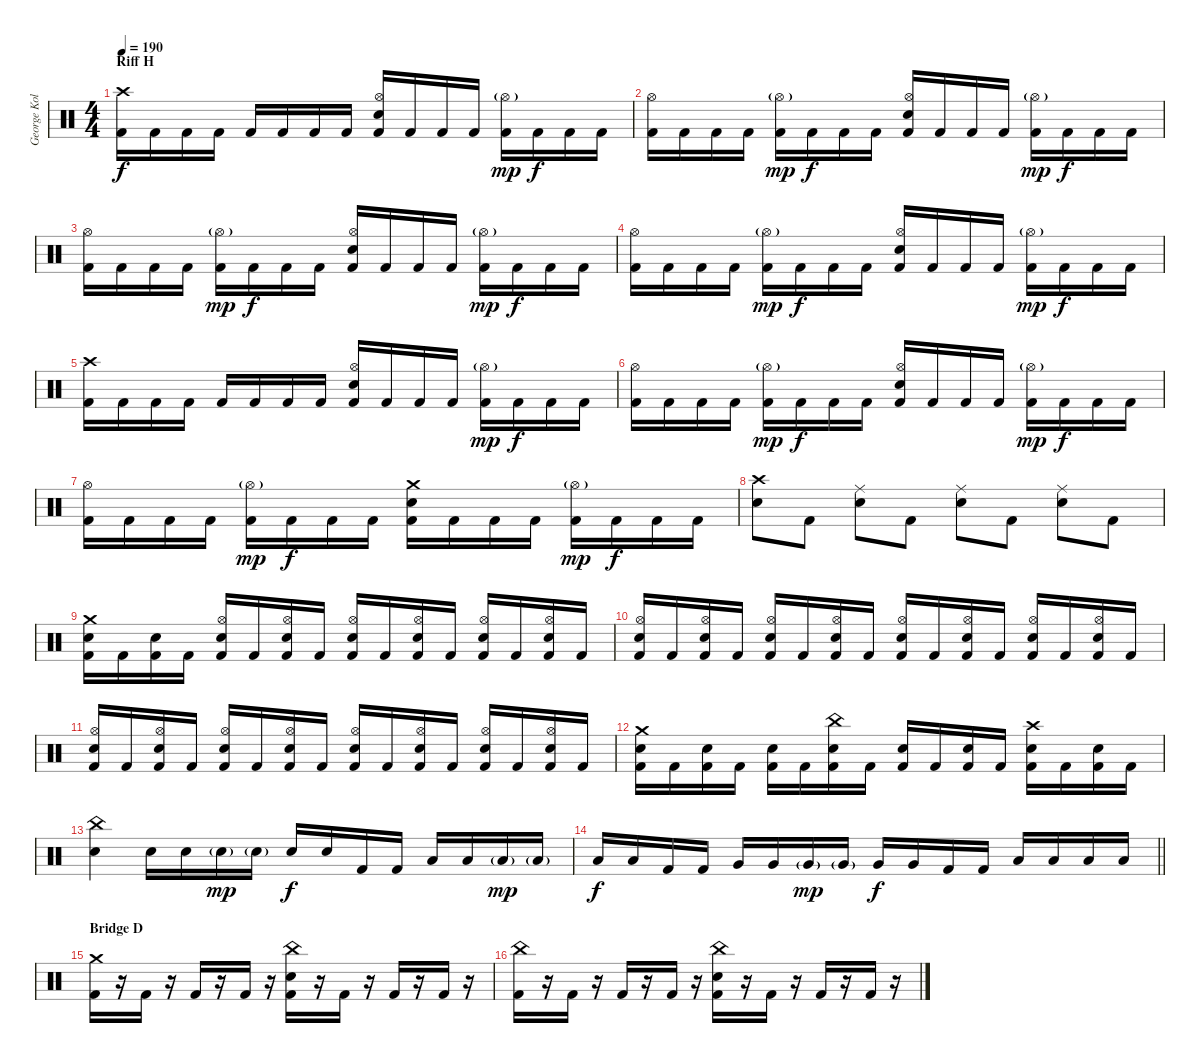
\track ("George Kollias" "George Kol") {instrument percussion}
\staff {score}
\articulation defaults
\ts (4 4)
\section ("" "Riff H")
\tempo 190
\clef neutral
\ks c
("Crash high (hit)" "Kick (hit) 2").16{dy f} "Kick (hit) 2".16 "Kick (hit) 2".16 "Kick (hit) 2".16 "Kick (hit) 2".16 "Kick (hit) 2".16 "Kick (hit) 2".16 "Kick (hit) 2".16 ("Hi-Hat (open)" "Electric Snare (hit)" "Kick (hit) 2").16 "Kick (hit) 2".16 "Kick (hit) 2".16 "Kick (hit) 2".16 ("Hi-Hat (open)"{g} "Kick (hit) 2").16{dy mp} "Kick (hit) 2".16{dy f} "Kick (hit) 2".16 "Kick (hit) 2".16 |
("Hi-Hat (open)" "Kick (hit) 2").16 "Kick (hit) 2".16 "Kick (hit) 2".16 "Kick (hit) 2".16 ("Hi-Hat (open)"{g} "Kick (hit) 2").16{dy mp} "Kick (hit) 2".16{dy f} "Kick (hit) 2".16 "Kick (hit) 2".16 ("Hi-Hat (open)" "Electric Snare (hit)" "Kick (hit) 2").16 "Kick (hit) 2".16 "Kick (hit) 2".16 "Kick (hit) 2".16 ("Hi-Hat (open)"{g} "Kick (hit) 2").16{dy mp} "Kick (hit) 2".16{dy f} "Kick (hit) 2".16 "Kick (hit) 2".16 |
("Hi-Hat (open)" "Kick (hit) 2").16 "Kick (hit) 2".16 "Kick (hit) 2".16 "Kick (hit) 2".16 ("Hi-Hat (open)"{g} "Kick (hit) 2").16{dy mp} "Kick (hit) 2".16{dy f} "Kick (hit) 2".16 "Kick (hit) 2".16 ("Hi-Hat (open)" "Electric Snare (hit)" "Kick (hit) 2").16 "Kick (hit) 2".16 "Kick (hit) 2".16 "Kick (hit) 2".16 ("Hi-Hat (open)"{g} "Kick (hit) 2").16{dy mp} "Kick (hit) 2".16{dy f} "Kick (hit) 2".16 "Kick (hit) 2".16 |
("Hi-Hat (open)" "Kick (hit) 2").16 "Kick (hit) 2".16 "Kick (hit) 2".16 "Kick (hit) 2".16 ("Hi-Hat (open)"{g} "Kick (hit) 2").16{dy mp} "Kick (hit) 2".16{dy f} "Kick (hit) 2".16 "Kick (hit) 2".16 ("Hi-Hat (open)" "Electric Snare (hit)" "Kick (hit) 2").16 "Kick (hit) 2".16 "Kick (hit) 2".16 "Kick (hit) 2".16 ("Hi-Hat (open)"{g} "Kick (hit) 2").16{dy mp} "Kick (hit) 2".16{dy f} "Kick (hit) 2".16 "Kick (hit) 2".16 |
("Crash high (hit)" "Kick (hit) 2").16 "Kick (hit) 2".16 "Kick (hit) 2".16 "Kick (hit) 2".16 "Kick (hit) 2".16 "Kick (hit) 2".16 "Kick (hit) 2".16 "Kick (hit) 2".16 ("Hi-Hat (open)" "Electric Snare (hit)" "Kick (hit) 2").16 "Kick (hit) 2".16 "Kick (hit) 2".16 "Kick (hit) 2".16 ("Hi-Hat (open)"{g} "Kick (hit) 2").16{dy mp} "Kick (hit) 2".16{dy f} "Kick (hit) 2".16 "Kick (hit) 2".16 |
("Hi-Hat (open)" "Kick (hit) 2").16 "Kick (hit) 2".16 "Kick (hit) 2".16 "Kick (hit) 2".16 ("Hi-Hat (open)"{g} "Kick (hit) 2").16{dy mp} "Kick (hit) 2".16{dy f} "Kick (hit) 2".16 "Kick (hit) 2".16 ("Hi-Hat (open)" "Electric Snare (hit)" "Kick (hit) 2").16 "Kick (hit) 2".16 "Kick (hit) 2".16 "Kick (hit) 2".16 ("Hi-Hat (open)"{g} "Kick (hit) 2").16{dy mp} "Kick (hit) 2".16{dy f} "Kick (hit) 2".16 "Kick (hit) 2".16 |
("Hi-Hat (open)" "Kick (hit) 2").16 "Kick (hit) 2".16 "Kick (hit) 2".16 "Kick (hit) 2".16 ("Hi-Hat (open)"{g} "Kick (hit) 2").16{dy mp} "Kick (hit) 2".16{dy f} "Kick (hit) 2".16 "Kick (hit) 2".16 ("Crash medium (hit)" "Electric Snare (hit)" "Kick (hit) 2").16 "Kick (hit) 2".16 "Kick (hit) 2".16 "Kick (hit) 2".16 ("Hi-Hat (open)"{g} "Kick (hit) 2").16{dy mp} "Kick (hit) 2".16{dy f} "Kick (hit) 2".16 "Kick (hit) 2".16 |
("Crash high (hit)" "Electric Snare (hit)").8 "Kick (hit) 2".8 ("Ride (middle)" "Electric Snare (hit)").8 "Kick (hit) 2".8 ("Ride (middle)" "Electric Snare (hit)").8 "Kick (hit) 2".8 ("Ride (middle)" "Electric Snare (hit)").8 "Kick (hit) 2".8 |
("Crash medium (hit)" "Electric Snare (hit)" "Kick (hit) 2").16 "Kick (hit) 2".16 ("Electric Snare (hit)" "Kick (hit) 2").16 "Kick (hit) 2".16 ("Hi-Hat (open)" "Electric Snare (hit)" "Kick (hit) 2").16 "Kick (hit) 2".16 ("Hi-Hat (open)" "Electric Snare (hit)" "Kick (hit) 2").16 "Kick (hit) 2".16 ("Hi-Hat (open)" "Electric Snare (hit)" "Kick (hit) 2").16 "Kick (hit) 2".16 ("Hi-Hat (open)" "Electric Snare (hit)" "Kick (hit) 2").16 "Kick (hit) 2".16 ("Hi-Hat (open)" "Electric Snare (hit)" "Kick (hit) 2").16 "Kick (hit) 2".16 ("Hi-Hat (open)" "Electric Snare (hit)" "Kick (hit) 2").16 "Kick (hit) 2".16 |
("Hi-Hat (open)" "Electric Snare (hit)" "Kick (hit) 2").16 "Kick (hit) 2".16 ("Hi-Hat (open)" "Electric Snare (hit)" "Kick (hit) 2").16 "Kick (hit) 2".16 ("Hi-Hat (open)" "Electric Snare (hit)" "Kick (hit) 2").16 "Kick (hit) 2".16 ("Hi-Hat (open)" "Electric Snare (hit)" "Kick (hit) 2").16 "Kick (hit) 2".16 ("Hi-Hat (open)" "Electric Snare (hit)" "Kick (hit) 2").16 "Kick (hit) 2".16 ("Hi-Hat (open)" "Electric Snare (hit)" "Kick (hit) 2").16 "Kick (hit) 2".16 ("Hi-Hat (open)" "Electric Snare (hit)" "Kick (hit) 2").16 "Kick (hit) 2".16 ("Hi-Hat (open)" "Electric Snare (hit)" "Kick (hit) 2").16 "Kick (hit) 2".16 |
("Hi-Hat (open)" "Electric Snare (hit)" "Kick (hit) 2").16 "Kick (hit) 2".16 ("Hi-Hat (open)" "Electric Snare (hit)" "Kick (hit) 2").16 "Kick (hit) 2".16 ("Hi-Hat (open)" "Electric Snare (hit)" "Kick (hit) 2").16 "Kick (hit) 2".16 ("Hi-Hat (open)" "Electric Snare (hit)" "Kick (hit) 2").16 "Kick (hit) 2".16 ("Hi-Hat (open)" "Electric Snare (hit)" "Kick (hit) 2").16 "Kick (hit) 2".16 ("Hi-Hat (open)" "Electric Snare (hit)" "Kick (hit) 2").16 "Kick (hit) 2".16 ("Hi-Hat (open)" "Electric Snare (hit)" "Kick (hit) 2").16 "Kick (hit) 2".16 ("Hi-Hat (open)" "Electric Snare (hit)" "Kick (hit) 2").16 "Kick (hit) 2".16 |
("Crash medium (hit)" "Electric Snare (hit)" "Kick (hit) 2").16 "Kick (hit) 2".16 ("Electric Snare (hit)" "Kick (hit) 2").16 "Kick (hit) 2".16 ("Electric Snare (hit)" "Kick (hit) 2").16 "Kick (hit) 2".16 ("China (hit)" "Electric Snare (hit)" "Kick (hit) 2").16 "Kick (hit) 2".16 ("Electric Snare (hit)" "Kick (hit) 2").16 "Kick (hit) 2".16 ("Electric Snare (hit)" "Kick (hit) 2").16 "Kick (hit) 2".16 ("Crash high (hit)" "Electric Snare (hit)" "Kick (hit) 2").16 "Kick (hit) 2".16 ("Electric Snare (hit)" "Kick (hit) 2").16 "Kick (hit) 2".16 |
("China (hit)" "Electric Snare (hit)").4 "Electric Snare (hit)".16 "Electric Snare (hit)".16 "Electric Snare (hit)"{g}.16{dy mp} "Electric Snare (hit)"{g}.16 "Electric Snare (hit)".16{dy f} "Electric Snare (hit)".16 "Kick (hit) 2".16 "Kick (hit) 2".16 "Low Tom (hit)".16 "Low Tom (hit)".16 "Low Tom (hit)"{g}.16{dy mp} "Low Tom (hit)"{g}.16 |
\barLineRight lightlight "Low Tom (hit)".16{dy f} "Low Tom (hit)".16 "Kick (hit) 2".16 "Kick (hit) 2".16 "Very Low Tom (hit)".16 "Very Low Tom (hit)".16 "Very Low Tom (hit)"{g}.16{dy mp} "Very Low Tom (hit)"{g}.16 "Very Low Tom (hit)".16{dy f} "Very Low Tom (hit)".16 "Kick (hit) 2".16 "Kick (hit) 2".16 "Low Floor Tom (hit)".16 "Low Floor Tom (hit)".16 "Low Floor Tom (hit)".16 "Low Floor Tom (hit)".16
|
\section ("" "Bridge D")
("Crash medium (hit)" "Kick (hit) 2").16 r.16 "Kick (hit) 2".16 r.16 "Kick (hit) 2".16 r.16 "Kick (hit) 2".16 r.16 ("China (hit)" "Electric Snare (hit)" "Kick (hit) 2").16 r.16 "Kick (hit) 2".16 r.16 "Kick (hit) 2".16 r.16 "Kick (hit) 2".16 r.16 |
("China (hit)" "Kick (hit) 2").16 r.16 "Kick (hit) 2".16 r.16 "Kick (hit) 2".16 r.16 "Kick (hit) 2".16 r.16 ("China (hit)" "Electric Snare (hit)" "Kick (hit) 2").16 r.16 "Kick (hit) 2".16 r.16 "Kick (hit) 2".16 r.16 "Kick (hit) 2".16 r.16
